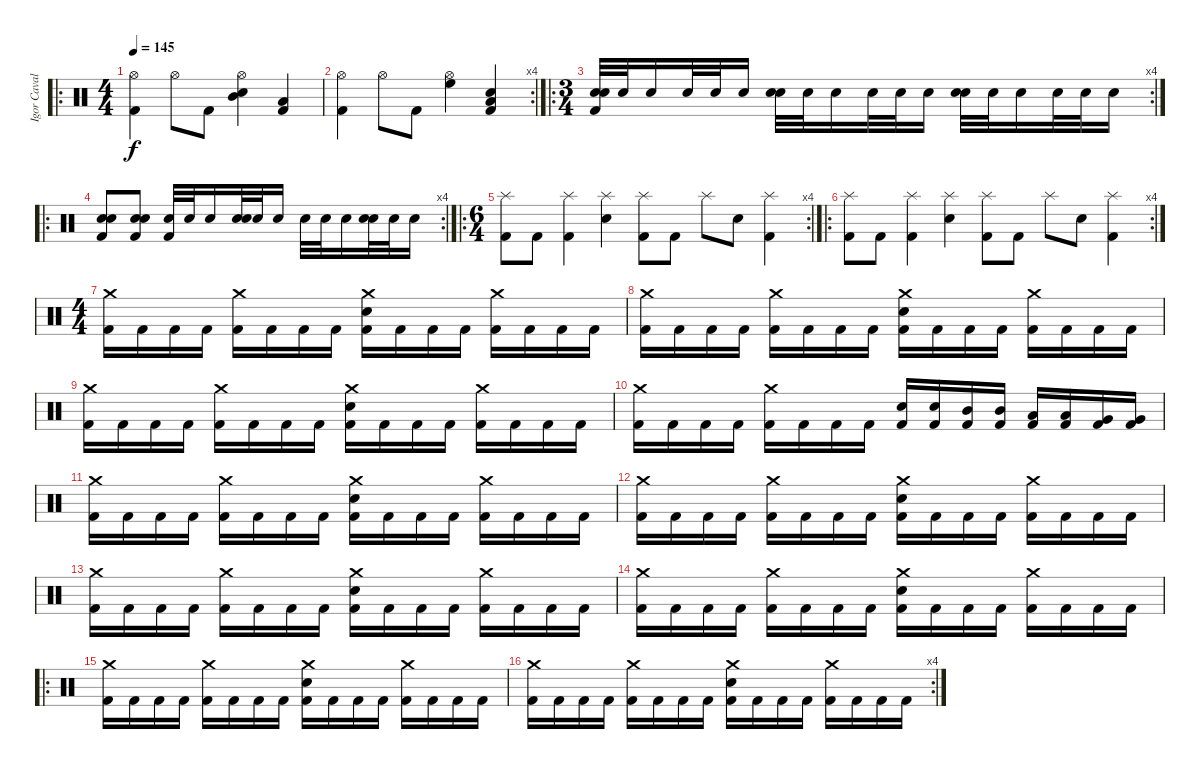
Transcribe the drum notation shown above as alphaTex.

\track ("Igor Cavalera" "Igor Caval") {instrument percussion}
\staff {score}
\articulation defaults
\ro
\ts (4 4)
\tempo 145
\clef neutral
\ks c
("Hi-Hat (open)" "Kick (hit) 2").4{dy f} "Hi-Hat (open)".8 "Kick (hit) 2".8 ("Hi-Hat (open)" "Mid Tom (hit)" "Electric Snare (hit)").4 ("Low Tom (hit)" "Kick (hit) 2").4 |
\rc 4
("Hi-Hat (open)" "Kick (hit) 2").4 "Hi-Hat (open)".8 "Kick (hit) 2".8 ("Hi-Hat (open)" "High Floor Tom (hit)").4 ("Low Tom (hit)" "Electric Snare (hit)" "Kick (hit) 2").4 |
\ro
\rc 4
\ts (3 4)
("Electric Snare (hit)" "Electric Snare (hit)" "Kick (hit) 2").32 "Electric Snare (hit)".32 "Electric Snare (hit)".16 "Electric Snare (hit)".32 "Electric Snare (hit)".32 "Electric Snare (hit)".16 ("Electric Snare (hit)" "Electric Snare (hit)").32 "Electric Snare (hit)".32 "Electric Snare (hit)".16 "Electric Snare (hit)".32 "Electric Snare (hit)".32 "Electric Snare (hit)".16 ("Electric Snare (hit)" "Electric Snare (hit)").32 "Electric Snare (hit)".32 "Electric Snare (hit)".16 "Electric Snare (hit)".32 "Electric Snare (hit)".32 "Electric Snare (hit)".16 |
\ro
\rc 4
("Electric Snare (hit)" "Electric Snare (hit)" "Kick (hit) 2").8 ("Electric Snare (hit)" "Electric Snare (hit)" "Kick (hit) 2").8 ("Electric Snare (hit)" "Kick (hit) 2").32 "Electric Snare (hit)".32 "Electric Snare (hit)".16 ("Electric Snare (hit)" "Electric Snare (hit)").32 "Electric Snare (hit)".32 "Electric Snare (hit)".16 "Electric Snare (hit)".32 "Electric Snare (hit)".32 "Electric Snare (hit)".16 ("Electric Snare (hit)" "Electric Snare (hit)").32 "Electric Snare (hit)".32 "Electric Snare (hit)".16 |
\ro
\rc 4
\ts (6 4)
("Splash (hit)" "Kick (hit) 2").8 "Kick (hit) 2".8 ("Splash (hit)" "Kick (hit) 2").4 ("Splash (hit)" "Electric Snare (hit)").4 ("Splash (hit)" "Kick (hit) 2").8 "Kick (hit) 2".8 "Splash (hit)".8 "Electric Snare (hit)".8 ("Splash (hit)" "Kick (hit) 2").4 |
\ro
\rc 4
("Splash (hit)" "Kick (hit) 2").8 "Kick (hit) 2".8 ("Splash (hit)" "Kick (hit) 2").4 ("Splash (hit)" "Electric Snare (hit)").4 ("Splash (hit)" "Kick (hit) 2").8 "Kick (hit) 2".8 "Splash (hit)".8 "Electric Snare (hit)".8 ("Splash (hit)" "Kick (hit) 2").4 |
\ts (4 4)
("Crash medium (hit)" "Kick (hit) 2").16 "Kick (hit) 2".16 "Kick (hit) 2".16 "Kick (hit) 2".16 ("Crash medium (hit)" "Kick (hit) 2").16 "Kick (hit) 2".16 "Kick (hit) 2".16 "Kick (hit) 2".16 ("Crash medium (hit)" "Electric Snare (hit)" "Kick (hit) 2").16 "Kick (hit) 2".16 "Kick (hit) 2".16 "Kick (hit) 2".16 ("Crash medium (hit)" "Kick (hit) 2").16 "Kick (hit) 2".16 "Kick (hit) 2".16 "Kick (hit) 2".16 |
("Crash medium (hit)" "Kick (hit) 2").16 "Kick (hit) 2".16 "Kick (hit) 2".16 "Kick (hit) 2".16 ("Crash medium (hit)" "Kick (hit) 2").16 "Kick (hit) 2".16 "Kick (hit) 2".16 "Kick (hit) 2".16 ("Crash medium (hit)" "Electric Snare (hit)" "Kick (hit) 2").16 "Kick (hit) 2".16 "Kick (hit) 2".16 "Kick (hit) 2".16 ("Crash medium (hit)" "Kick (hit) 2").16 "Kick (hit) 2".16 "Kick (hit) 2".16 "Kick (hit) 2".16 |
("Crash medium (hit)" "Kick (hit) 2").16 "Kick (hit) 2".16 "Kick (hit) 2".16 "Kick (hit) 2".16 ("Crash medium (hit)" "Kick (hit) 2").16 "Kick (hit) 2".16 "Kick (hit) 2".16 "Kick (hit) 2".16 ("Crash medium (hit)" "Electric Snare (hit)" "Kick (hit) 2").16 "Kick (hit) 2".16 "Kick (hit) 2".16 "Kick (hit) 2".16 ("Crash medium (hit)" "Kick (hit) 2").16 "Kick (hit) 2".16 "Kick (hit) 2".16 "Kick (hit) 2".16 |
("Crash medium (hit)" "Kick (hit) 2").16 "Kick (hit) 2".16 "Kick (hit) 2".16 "Kick (hit) 2".16 ("Crash medium (hit)" "Kick (hit) 2").16 "Kick (hit) 2".16 "Kick (hit) 2".16 "Kick (hit) 2".16 ("Electric Snare (hit)" "Kick (hit) 2").16 ("Electric Snare (hit)" "Kick (hit) 2").16 ("Mid Tom (hit)" "Kick (hit) 2").16 ("Mid Tom (hit)" "Kick (hit) 2").16 ("Low Tom (hit)" "Kick (hit) 2").16 ("Low Tom (hit)" "Kick (hit) 2").16 ("Very Low Tom (hit)" "Kick (hit) 2").16 ("Very Low Tom (hit)" "Kick (hit) 2").16 |
("Crash medium (hit)" "Kick (hit) 2").16 "Kick (hit) 2".16 "Kick (hit) 2".16 "Kick (hit) 2".16 ("Crash medium (hit)" "Kick (hit) 2").16 "Kick (hit) 2".16 "Kick (hit) 2".16 "Kick (hit) 2".16 ("Crash medium (hit)" "Electric Snare (hit)" "Kick (hit) 2").16 "Kick (hit) 2".16 "Kick (hit) 2".16 "Kick (hit) 2".16 ("Crash medium (hit)" "Kick (hit) 2").16 "Kick (hit) 2".16 "Kick (hit) 2".16 "Kick (hit) 2".16 |
("Crash medium (hit)" "Kick (hit) 2").16 "Kick (hit) 2".16 "Kick (hit) 2".16 "Kick (hit) 2".16 ("Crash medium (hit)" "Kick (hit) 2").16 "Kick (hit) 2".16 "Kick (hit) 2".16 "Kick (hit) 2".16 ("Crash medium (hit)" "Electric Snare (hit)" "Kick (hit) 2").16 "Kick (hit) 2".16 "Kick (hit) 2".16 "Kick (hit) 2".16 ("Crash medium (hit)" "Kick (hit) 2").16 "Kick (hit) 2".16 "Kick (hit) 2".16 "Kick (hit) 2".16 |
("Crash medium (hit)" "Kick (hit) 2").16 "Kick (hit) 2".16 "Kick (hit) 2".16 "Kick (hit) 2".16 ("Crash medium (hit)" "Kick (hit) 2").16 "Kick (hit) 2".16 "Kick (hit) 2".16 "Kick (hit) 2".16 ("Crash medium (hit)" "Electric Snare (hit)" "Kick (hit) 2").16 "Kick (hit) 2".16 "Kick (hit) 2".16 "Kick (hit) 2".16 ("Crash medium (hit)" "Kick (hit) 2").16 "Kick (hit) 2".16 "Kick (hit) 2".16 "Kick (hit) 2".16 |
("Crash medium (hit)" "Kick (hit) 2").16 "Kick (hit) 2".16 "Kick (hit) 2".16 "Kick (hit) 2".16 ("Crash medium (hit)" "Kick (hit) 2").16 "Kick (hit) 2".16 "Kick (hit) 2".16 "Kick (hit) 2".16 ("Crash medium (hit)" "Electric Snare (hit)" "Kick (hit) 2").16 "Kick (hit) 2".16 "Kick (hit) 2".16 "Kick (hit) 2".16 ("Crash medium (hit)" "Kick (hit) 2").16 "Kick (hit) 2".16 "Kick (hit) 2".16 "Kick (hit) 2".16 |
\ro
("Crash medium (hit)" "Kick (hit) 2").16 "Kick (hit) 2".16 "Kick (hit) 2".16 "Kick (hit) 2".16 ("Crash medium (hit)" "Kick (hit) 2").16 "Kick (hit) 2".16 "Kick (hit) 2".16 "Kick (hit) 2".16 ("Crash medium (hit)" "Electric Snare (hit)" "Kick (hit) 2").16 "Kick (hit) 2".16 "Kick (hit) 2".16 "Kick (hit) 2".16 ("Crash medium (hit)" "Kick (hit) 2").16 "Kick (hit) 2".16 "Kick (hit) 2".16 "Kick (hit) 2".16 |
\rc 4
("Crash medium (hit)" "Kick (hit) 2").16 "Kick (hit) 2".16 "Kick (hit) 2".16 "Kick (hit) 2".16 ("Crash medium (hit)" "Kick (hit) 2").16 "Kick (hit) 2".16 "Kick (hit) 2".16 "Kick (hit) 2".16 ("Crash medium (hit)" "Electric Snare (hit)" "Kick (hit) 2").16 "Kick (hit) 2".16 "Kick (hit) 2".16 "Kick (hit) 2".16 ("Crash medium (hit)" "Kick (hit) 2").16 "Kick (hit) 2".16 "Kick (hit) 2".16 "Kick (hit) 2".16
